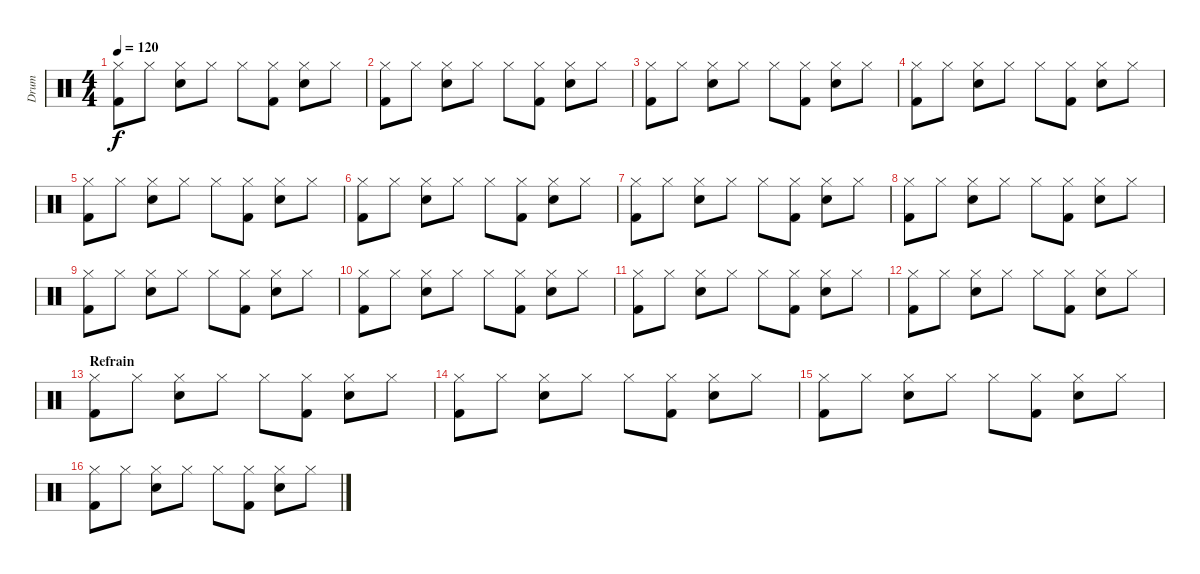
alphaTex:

\track ("Drum" "Drum") {instrument percussion}
\staff {score}
\articulation defaults
\ts (4 4)
\tempo 120
\clef neutral
\ks c
("Kick (hit) 2" "Hi-Hat (closed)").8{dy f} "Hi-Hat (closed)".8 ("Snare (hit) 2" "Hi-Hat (closed)").8 "Hi-Hat (closed)".8 "Hi-Hat (closed)".8 ("Kick (hit) 2" "Hi-Hat (closed)").8 ("Snare (hit) 2" "Hi-Hat (closed)").8 "Hi-Hat (closed)".8 |
("Kick (hit) 2" "Hi-Hat (closed)").8 "Hi-Hat (closed)".8 ("Snare (hit) 2" "Hi-Hat (closed)").8 "Hi-Hat (closed)".8 "Hi-Hat (closed)".8 ("Kick (hit) 2" "Hi-Hat (closed)").8 ("Snare (hit) 2" "Hi-Hat (closed)").8 "Hi-Hat (closed)".8 |
("Kick (hit) 2" "Hi-Hat (closed)").8 "Hi-Hat (closed)".8 ("Snare (hit) 2" "Hi-Hat (closed)").8 "Hi-Hat (closed)".8 "Hi-Hat (closed)".8 ("Kick (hit) 2" "Hi-Hat (closed)").8 ("Snare (hit) 2" "Hi-Hat (closed)").8 "Hi-Hat (closed)".8 |
("Kick (hit) 2" "Hi-Hat (closed)").8 "Hi-Hat (closed)".8 ("Snare (hit) 2" "Hi-Hat (closed)").8 "Hi-Hat (closed)".8 "Hi-Hat (closed)".8 ("Kick (hit) 2" "Hi-Hat (closed)").8 ("Snare (hit) 2" "Hi-Hat (closed)").8 "Hi-Hat (closed)".8 |
("Kick (hit) 2" "Hi-Hat (closed)").8 "Hi-Hat (closed)".8 ("Snare (hit) 2" "Hi-Hat (closed)").8 "Hi-Hat (closed)".8 "Hi-Hat (closed)".8 ("Kick (hit) 2" "Hi-Hat (closed)").8 ("Snare (hit) 2" "Hi-Hat (closed)").8 "Hi-Hat (closed)".8 |
("Kick (hit) 2" "Hi-Hat (closed)").8 "Hi-Hat (closed)".8 ("Snare (hit) 2" "Hi-Hat (closed)").8 "Hi-Hat (closed)".8 "Hi-Hat (closed)".8 ("Kick (hit) 2" "Hi-Hat (closed)").8 ("Snare (hit) 2" "Hi-Hat (closed)").8 "Hi-Hat (closed)".8 |
("Kick (hit) 2" "Hi-Hat (closed)").8 "Hi-Hat (closed)".8 ("Snare (hit) 2" "Hi-Hat (closed)").8 "Hi-Hat (closed)".8 "Hi-Hat (closed)".8 ("Kick (hit) 2" "Hi-Hat (closed)").8 ("Snare (hit) 2" "Hi-Hat (closed)").8 "Hi-Hat (closed)".8 |
("Kick (hit) 2" "Hi-Hat (closed)").8 "Hi-Hat (closed)".8 ("Snare (hit) 2" "Hi-Hat (closed)").8 "Hi-Hat (closed)".8 "Hi-Hat (closed)".8 ("Kick (hit) 2" "Hi-Hat (closed)").8 ("Snare (hit) 2" "Hi-Hat (closed)").8 "Hi-Hat (closed)".8 |
("Kick (hit) 2" "Hi-Hat (closed)").8 "Hi-Hat (closed)".8 ("Snare (hit) 2" "Hi-Hat (closed)").8 "Hi-Hat (closed)".8 "Hi-Hat (closed)".8 ("Kick (hit) 2" "Hi-Hat (closed)").8 ("Snare (hit) 2" "Hi-Hat (closed)").8 "Hi-Hat (closed)".8 |
("Kick (hit) 2" "Hi-Hat (closed)").8 "Hi-Hat (closed)".8 ("Snare (hit) 2" "Hi-Hat (closed)").8 "Hi-Hat (closed)".8 "Hi-Hat (closed)".8 ("Kick (hit) 2" "Hi-Hat (closed)").8 ("Snare (hit) 2" "Hi-Hat (closed)").8 "Hi-Hat (closed)".8 |
("Kick (hit) 2" "Hi-Hat (closed)").8 "Hi-Hat (closed)".8 ("Snare (hit) 2" "Hi-Hat (closed)").8 "Hi-Hat (closed)".8 "Hi-Hat (closed)".8 ("Kick (hit) 2" "Hi-Hat (closed)").8 ("Snare (hit) 2" "Hi-Hat (closed)").8 "Hi-Hat (closed)".8 |
("Kick (hit) 2" "Hi-Hat (closed)").8 "Hi-Hat (closed)".8 ("Snare (hit) 2" "Hi-Hat (closed)").8 "Hi-Hat (closed)".8 "Hi-Hat (closed)".8 ("Kick (hit) 2" "Hi-Hat (closed)").8 ("Snare (hit) 2" "Hi-Hat (closed)").8 "Hi-Hat (closed)".8 |
\section ("" "Refrain")
("Kick (hit) 2" "Hi-Hat (closed)").8 "Hi-Hat (closed)".8 ("Snare (hit) 2" "Hi-Hat (closed)").8 "Hi-Hat (closed)".8 "Hi-Hat (closed)".8 ("Kick (hit) 2" "Hi-Hat (closed)").8 ("Snare (hit) 2" "Hi-Hat (closed)").8 "Hi-Hat (closed)".8 |
("Kick (hit) 2" "Hi-Hat (closed)").8 "Hi-Hat (closed)".8 ("Snare (hit) 2" "Hi-Hat (closed)").8 "Hi-Hat (closed)".8 "Hi-Hat (closed)".8 ("Kick (hit) 2" "Hi-Hat (closed)").8 ("Snare (hit) 2" "Hi-Hat (closed)").8 "Hi-Hat (closed)".8 |
("Kick (hit) 2" "Hi-Hat (closed)").8 "Hi-Hat (closed)".8 ("Snare (hit) 2" "Hi-Hat (closed)").8 "Hi-Hat (closed)".8 "Hi-Hat (closed)".8 ("Kick (hit) 2" "Hi-Hat (closed)").8 ("Snare (hit) 2" "Hi-Hat (closed)").8 "Hi-Hat (closed)".8 |
("Kick (hit) 2" "Hi-Hat (closed)").8 "Hi-Hat (closed)".8 ("Snare (hit) 2" "Hi-Hat (closed)").8 "Hi-Hat (closed)".8 "Hi-Hat (closed)".8 ("Kick (hit) 2" "Hi-Hat (closed)").8 ("Snare (hit) 2" "Hi-Hat (closed)").8 "Hi-Hat (closed)".8
